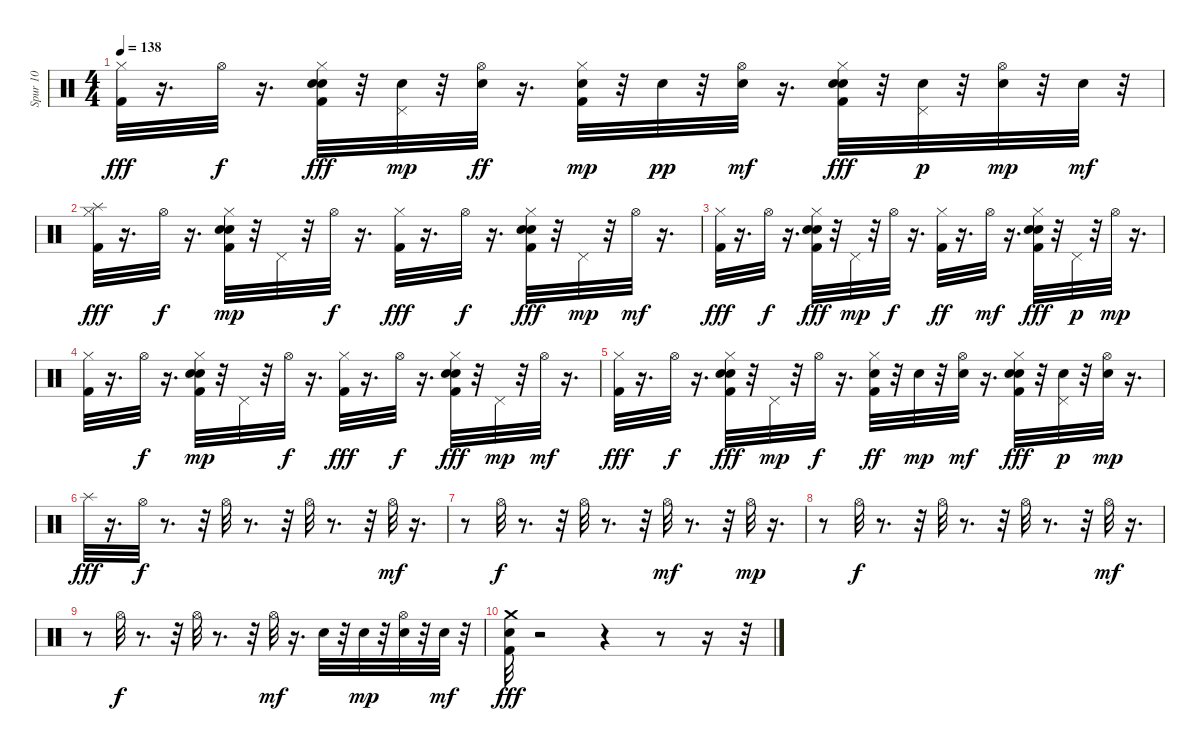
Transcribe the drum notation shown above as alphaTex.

\track ("Spur 10" "Spur 10") {instrument percussion}
\staff {score}
\articulation defaults
\ts (4 4)
\tempo 138
\clef neutral
\ks c
("Kick (hit) 2" "Hi-Hat (closed)").32{dy fff} r.16{d} "Hi-Hat (open)".32{dy f} r.16{d} ("Kick (hit) 2" "Snare (hit) 2" "Hand Clap (hit)" "Hi-Hat (closed)").32{dy fff} r.32 ("Snare (hit) 2" "Pedal Hi-Hat (hit)").32{dy mp} r.32 ("Snare (hit) 2" "Hi-Hat (open)").32{dy ff} r.16{d} ("Kick (hit) 2" "Snare (hit) 2" "Hi-Hat (closed)").32{dy mp} r.32 "Snare (hit) 2".32{dy pp} r.32 ("Snare (hit) 2" "Hi-Hat (open)").32{dy mf} r.16{d} ("Kick (hit) 2" "Snare (hit) 2" "Hand Clap (hit)" "Hi-Hat (closed)").32{dy fff} r.32 ("Snare (hit) 2" "Pedal Hi-Hat (hit)").32{dy p} r.32 ("Snare (hit) 2" "Hi-Hat (open)").32{dy mp} r.32 "Snare (hit) 2".32{dy mf} r.32 |
("Kick (hit) 2" "Hi-Hat (closed)" "Splash (hit)").32{dy fff} r.16{d} "Hi-Hat (open)".32{dy f} r.16{d} ("Kick (hit) 2" "Snare (hit) 2" "Hand Clap (hit)" "Hi-Hat (closed)").32{dy mp} r.32 "Pedal Hi-Hat (hit)".32 r.32 "Hi-Hat (open)".32{dy f} r.16{d} ("Kick (hit) 2" "Hi-Hat (closed)").32{dy fff} r.16{d} "Hi-Hat (open)".32{dy f} r.16{d} ("Kick (hit) 2" "Snare (hit) 2" "Hand Clap (hit)" "Hi-Hat (closed)").32{dy fff} r.32 "Pedal Hi-Hat (hit)".32{dy mp} r.32 "Hi-Hat (open)".32{dy mf} r.16{d} |
("Kick (hit) 2" "Hi-Hat (closed)").32{dy fff} r.16{d} "Hi-Hat (open)".32{dy f} r.16{d} ("Kick (hit) 2" "Snare (hit) 2" "Hand Clap (hit)" "Hi-Hat (closed)").32{dy fff} r.32 "Pedal Hi-Hat (hit)".32{dy mp} r.32 "Hi-Hat (open)".32{dy f} r.16{d} ("Kick (hit) 2" "Hi-Hat (closed)").32{dy ff} r.16{d} "Hi-Hat (open)".32{dy mf} r.16{d} ("Kick (hit) 2" "Snare (hit) 2" "Hand Clap (hit)" "Hi-Hat (closed)").32{dy fff} r.32 "Pedal Hi-Hat (hit)".32{dy p} r.32 "Hi-Hat (open)".32{dy mp} r.16{d} |
("Kick (hit) 2" "Hi-Hat (closed)").32 r.16{d} "Hi-Hat (open)".32{dy f} r.16{d} ("Kick (hit) 2" "Snare (hit) 2" "Hand Clap (hit)" "Hi-Hat (closed)").32{dy mp} r.32 "Pedal Hi-Hat (hit)".32 r.32 "Hi-Hat (open)".32{dy f} r.16{d} ("Kick (hit) 2" "Hi-Hat (closed)").32{dy fff} r.16{d} "Hi-Hat (open)".32{dy f} r.16{d} ("Kick (hit) 2" "Snare (hit) 2" "Hand Clap (hit)" "Hi-Hat (closed)").32{dy fff} r.32 "Pedal Hi-Hat (hit)".32{dy mp} r.32 "Hi-Hat (open)".32{dy mf} r.16{d} |
("Kick (hit) 2" "Hi-Hat (closed)").32{dy fff} r.16{d} "Hi-Hat (open)".32{dy f} r.16{d} ("Kick (hit) 2" "Snare (hit) 2" "Hand Clap (hit)" "Hi-Hat (closed)").32{dy fff} r.32 "Pedal Hi-Hat (hit)".32{dy mp} r.32 "Hi-Hat (open)".32{dy f} r.16{d} ("Kick (hit) 2" "Snare (hit) 2" "Hi-Hat (closed)").32{dy ff} r.32 "Snare (hit) 2".32{dy mp} r.32 ("Snare (hit) 2" "Hi-Hat (open)").32{dy mf} r.16{d} ("Kick (hit) 2" "Snare (hit) 2" "Hand Clap (hit)" "Hi-Hat (closed)").32{dy fff} r.32 ("Snare (hit) 2" "Pedal Hi-Hat (hit)").32{dy p} r.32 ("Snare (hit) 2" "Hi-Hat (open)").32{dy mp} r.16{d} |
"Splash (hit)".32{dy fff} r.16{d} "Hi-Hat (open)".32{dy f} r.8{d} r.32 "Hi-Hat (open)".32 r.8{d} r.32 "Hi-Hat (open)".32 r.8{d} r.32 "Hi-Hat (open)".32{dy mf} r.16{d} |
r.8 "Hi-Hat (open)".32{dy f} r.8{d} r.32 "Hi-Hat (open)".32 r.8{d} r.32 "Hi-Hat (open)".32{dy mf} r.8{d} r.32 "Hi-Hat (open)".32{dy mp} r.16{d} |
r.8 "Hi-Hat (open)".32{dy f} r.8{d} r.32 "Hi-Hat (open)".32 r.8{d} r.32 "Hi-Hat (open)".32 r.8{d} r.32 "Hi-Hat (open)".32{dy mf} r.16{d} |
r.8 "Hi-Hat (open)".32{dy f} r.8{d} r.32 "Hi-Hat (open)".32 r.8{d} r.32 "Hi-Hat (open)".32{dy mf} r.16{d} "Snare (hit) 2".32 r.32 "Snare (hit) 2".32{dy mp} r.32 ("Snare (hit) 2" "Hi-Hat (open)").32 r.32 "Snare (hit) 2".32{dy mf} r.32 |
("Kick (hit) 2" "Snare (hit) 2" "Crash medium (hit)").32{dy fff} r.2 r.4 r.8 r.16 r.32
